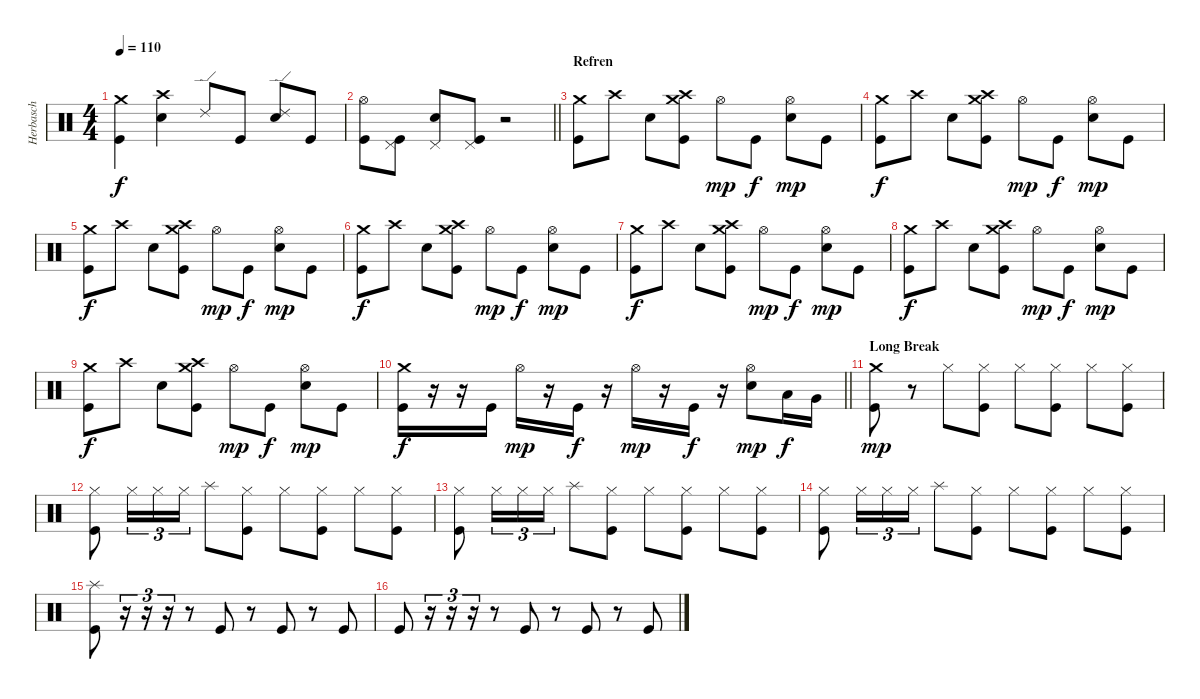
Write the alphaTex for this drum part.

\track ("Herbasch" "Herbasch") {instrument percussion}
\staff {score}
\articulation defaults
\ts (4 4)
\tempo 110
\clef neutral
\ks c
("Kick (hit)" "Crash medium (hit)").4{dy f} ("Crash high (hit)" "Electric Snare (hit)").4 "Ride (edge) 2".8 "Kick (hit)".8 ("Electric Snare (hit)" "Ride (edge) 2").8 "Kick (hit)".8 |
\barLineRight lightlight
("Hi-Hat (open)" "Kick (hit)").8 ("Pedal Hi-Hat (hit)" "Kick (hit)").8 ("Pedal Hi-Hat (hit)" "Electric Snare (hit)").8 ("Pedal Hi-Hat (hit)" "Kick (hit)").8 r.2 |
\section ("" "Refren")
("Crash medium (hit)" "Kick (hit)").8 "Crash high (hit)".8 "Electric Snare (hit)".8 ("Crash medium (hit)" "Kick (hit)" "Crash high (hit)").8 "Hi-Hat (open)".8{dy mp} "Kick (hit)".8{dy f} ("Hi-Hat (open)" "Electric Snare (hit)").8{dy mp} "Kick (hit)".8 |
("Crash medium (hit)" "Kick (hit)").8{dy f} "Crash high (hit)".8 "Electric Snare (hit)".8 ("Crash medium (hit)" "Kick (hit)" "Crash high (hit)").8 "Hi-Hat (open)".8{dy mp} "Kick (hit)".8{dy f} ("Hi-Hat (open)" "Electric Snare (hit)").8{dy mp} "Kick (hit)".8 |
("Crash medium (hit)" "Kick (hit)").8{dy f} "Crash high (hit)".8 "Electric Snare (hit)".8 ("Crash medium (hit)" "Kick (hit)" "Crash high (hit)").8 "Hi-Hat (open)".8{dy mp} "Kick (hit)".8{dy f} ("Hi-Hat (open)" "Electric Snare (hit)").8{dy mp} "Kick (hit)".8 |
("Crash medium (hit)" "Kick (hit)").8{dy f} "Crash high (hit)".8 "Electric Snare (hit)".8 ("Crash medium (hit)" "Kick (hit)" "Crash high (hit)").8 "Hi-Hat (open)".8{dy mp} "Kick (hit)".8{dy f} ("Hi-Hat (open)" "Electric Snare (hit)").8{dy mp} "Kick (hit)".8 |
("Crash medium (hit)" "Kick (hit)").8{dy f} "Crash high (hit)".8 "Electric Snare (hit)".8 ("Crash medium (hit)" "Kick (hit)" "Crash high (hit)").8 "Hi-Hat (open)".8{dy mp} "Kick (hit)".8{dy f} ("Hi-Hat (open)" "Electric Snare (hit)").8{dy mp} "Kick (hit)".8 |
("Crash medium (hit)" "Kick (hit)").8{dy f} "Crash high (hit)".8 "Electric Snare (hit)".8 ("Crash medium (hit)" "Kick (hit)" "Crash high (hit)").8 "Hi-Hat (open)".8{dy mp} "Kick (hit)".8{dy f} ("Hi-Hat (open)" "Electric Snare (hit)").8{dy mp} "Kick (hit)".8 |
("Crash medium (hit)" "Kick (hit)").8{dy f} "Crash high (hit)".8 "Electric Snare (hit)".8 ("Crash medium (hit)" "Kick (hit)" "Crash high (hit)").8 "Hi-Hat (open)".8{dy mp} "Kick (hit)".8{dy f} ("Hi-Hat (open)" "Electric Snare (hit)").8{dy mp} "Kick (hit)".8 |
\barLineRight lightlight
("Crash medium (hit)" "Kick (hit)").16{dy f} r.16 r.16 "Kick (hit)".16 "Hi-Hat (open)".16{dy mp} r.16 "Kick (hit)".16{dy f} r.16 "Hi-Hat (open)".16{dy mp} r.16 "Kick (hit)".16{dy f} r.16 ("Hi-Hat (open)" "Electric Snare (hit)").8{dy mp} "Low Tom (hit)".16{dy f} "Very Low Tom (hit)".16 |
\section ("" "Long Break")
("Crash medium (hit)" "Kick (hit)").8{dy mp} r.8 "Hi-Hat (closed)".8 ("Hi-Hat (closed)" "Kick (hit)").8 "Hi-Hat (closed)".8 ("Hi-Hat (closed)" "Kick (hit)").8 "Hi-Hat (closed)".8 ("Hi-Hat (closed)" "Kick (hit)").8 |
("Hi-Hat (closed)" "Kick (hit)").8 "Hi-Hat (closed)".16{tu (3 2)} "Hi-Hat (closed)".16{tu (3 2)} "Hi-Hat (closed)".16{tu (3 2)} "Splash (hit)".8 ("Hi-Hat (closed)" "Kick (hit)").8 "Hi-Hat (closed)".8 ("Hi-Hat (closed)" "Kick (hit)").8 "Hi-Hat (closed)".8 ("Hi-Hat (closed)" "Kick (hit)").8 |
("Hi-Hat (closed)" "Kick (hit)").8 "Hi-Hat (closed)".16{tu (3 2)} "Hi-Hat (closed)".16{tu (3 2)} "Hi-Hat (closed)".16{tu (3 2)} "Splash (hit)".8 ("Hi-Hat (closed)" "Kick (hit)").8 "Hi-Hat (closed)".8 ("Hi-Hat (closed)" "Kick (hit)").8 "Hi-Hat (closed)".8 ("Hi-Hat (closed)" "Kick (hit)").8 |
("Hi-Hat (closed)" "Kick (hit)").8 "Hi-Hat (closed)".16{tu (3 2)} "Hi-Hat (closed)".16{tu (3 2)} "Hi-Hat (closed)".16{tu (3 2)} "Splash (hit)".8 ("Hi-Hat (closed)" "Kick (hit)").8 "Hi-Hat (closed)".8 ("Hi-Hat (closed)" "Kick (hit)").8 "Hi-Hat (closed)".8 ("Hi-Hat (closed)" "Kick (hit)").8 |
("Splash (hit)" "Kick (hit)").8 r.16{tu (3 2)} r.16{tu (3 2)} r.16{tu (3 2)} r.8 "Kick (hit)".8 r.8 "Kick (hit)".8 r.8 "Kick (hit)".8 |
"Kick (hit)".8 r.16{tu (3 2)} r.16{tu (3 2)} r.16{tu (3 2)} r.8 "Kick (hit)".8 r.8 "Kick (hit)".8 r.8 "Kick (hit)".8
